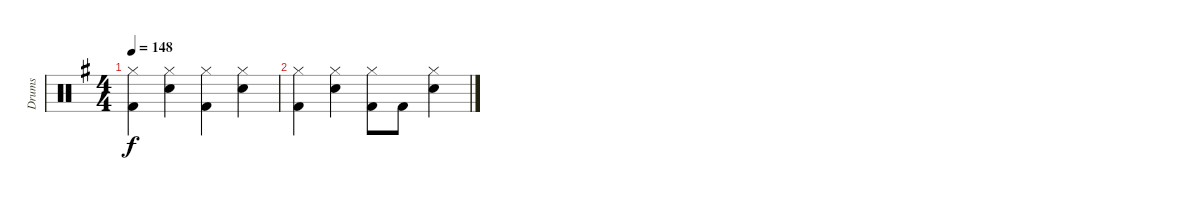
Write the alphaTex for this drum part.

\track ("Drums" "Drums") {instrument percussion}
\staff {score}
\articulation defaults
\ts (4 4)
\tempo 148
\clef neutral
\ks eminor
("Kick (hit) 2" "Hi-Hat (closed)").4{dy f} ("Snare (hit) 2" "Hi-Hat (closed)").4 ("Kick (hit) 2" "Hi-Hat (closed)").4 ("Snare (hit) 2" "Hi-Hat (closed)").4 |
("Kick (hit) 2" "Hi-Hat (closed)").4 ("Snare (hit) 2" "Hi-Hat (closed)").4 ("Kick (hit) 2" "Hi-Hat (closed)").8 "Kick (hit) 2".8 ("Snare (hit) 2" "Hi-Hat (closed)").4
